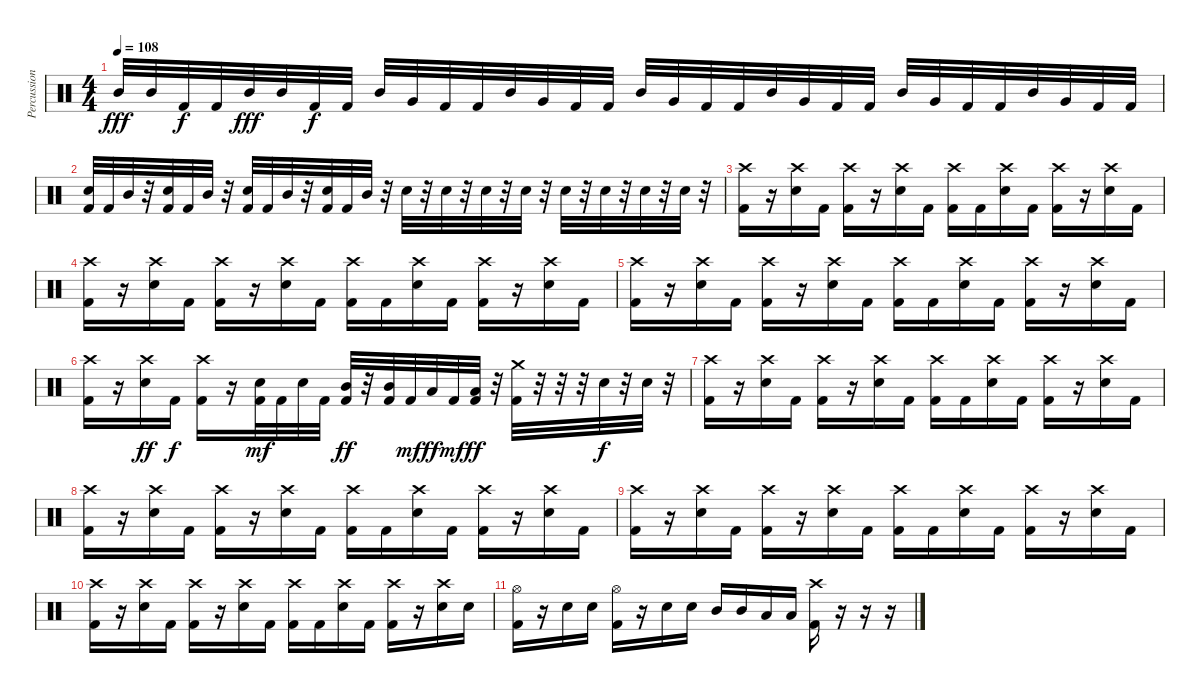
\track ("Percussions" "Percussion") {instrument percussion}
\staff {score}
\articulation defaults
\ts (4 4)
\tempo 108
\clef neutral
\ks c "Mid Tom (hit)".32{dy fff} "Mid Tom (hit)".32 "Kick (hit) 2".32{dy f} "Kick (hit) 2".32 "Mid Tom (hit)".32{dy fff} "Mid Tom (hit)".32 "Kick (hit) 2".32{dy f} "Kick (hit) 2".32 "Mid Tom (hit)".32 "Very Low Tom (hit)".32 "Kick (hit) 2".32 "Kick (hit) 2".32 "Mid Tom (hit)".32 "Very Low Tom (hit)".32 "Kick (hit) 2".32 "Kick (hit) 2".32 "Mid Tom (hit)".32 "Very Low Tom (hit)".32 "Kick (hit) 2".32 "Kick (hit) 2".32 "Mid Tom (hit)".32 "Very Low Tom (hit)".32 "Kick (hit) 2".32 "Kick (hit) 2".32 "Mid Tom (hit)".32 "Very Low Tom (hit)".32 "Kick (hit) 2".32 "Kick (hit) 2".32 "Mid Tom (hit)".32 "Very Low Tom (hit)".32 "Kick (hit) 2".32 "Kick (hit) 2".32
|
("Kick (hit) 2" "Electric Snare (hit)").32 "Kick (hit) 2".32 "Mid Tom (hit)".32 r.32 ("Kick (hit) 2" "Electric Snare (hit)").32 "Kick (hit) 2".32 "Mid Tom (hit)".32 r.32 ("Kick (hit) 2" "Electric Snare (hit)").32 "Kick (hit) 2".32 "Mid Tom (hit)".32 r.32 ("Kick (hit) 2" "Electric Snare (hit)").32 "Kick (hit) 2".32 "Mid Tom (hit)".32 r.32 "Electric Snare (hit)".32 r.32 "Electric Snare (hit)".32 r.32 "Electric Snare (hit)".32 r.32 "Electric Snare (hit)".32 r.32 "Electric Snare (hit)".32 r.32 "Electric Snare (hit)".32 r.32 "Electric Snare (hit)".32 r.32 "Electric Snare (hit)".32 r.32 |
("Kick (hit) 2" "Crash high (hit)").16 r.16 ("Electric Snare (hit)" "Crash high (hit)").16 "Kick (hit) 2".16 ("Kick (hit) 2" "Crash high (hit)").16 r.16 ("Electric Snare (hit)" "Crash high (hit)").16 "Kick (hit) 2".16 ("Kick (hit) 2" "Crash high (hit)").16 "Kick (hit) 2".16 ("Electric Snare (hit)" "Crash high (hit)").16 "Kick (hit) 2".16 ("Kick (hit) 2" "Crash high (hit)").16 r.16 ("Electric Snare (hit)" "Crash high (hit)").16 "Kick (hit) 2".16 |
("Kick (hit) 2" "Crash high (hit)").16 r.16 ("Electric Snare (hit)" "Crash high (hit)").16 "Kick (hit) 2".16 ("Kick (hit) 2" "Crash high (hit)").16 r.16 ("Electric Snare (hit)" "Crash high (hit)").16 "Kick (hit) 2".16 ("Kick (hit) 2" "Crash high (hit)").16 "Kick (hit) 2".16 ("Electric Snare (hit)" "Crash high (hit)").16 "Kick (hit) 2".16 ("Kick (hit) 2" "Crash high (hit)").16 r.16 ("Electric Snare (hit)" "Crash high (hit)").16 "Kick (hit) 2".16 |
("Kick (hit) 2" "Crash high (hit)").16 r.16 ("Electric Snare (hit)" "Crash high (hit)").16 "Kick (hit) 2".16 ("Kick (hit) 2" "Crash high (hit)").16 r.16 ("Electric Snare (hit)" "Crash high (hit)").16 "Kick (hit) 2".16 ("Kick (hit) 2" "Crash high (hit)").16 "Kick (hit) 2".16 ("Electric Snare (hit)" "Crash high (hit)").16 "Kick (hit) 2".16 ("Kick (hit) 2" "Crash high (hit)").16 r.16 ("Electric Snare (hit)" "Crash high (hit)").16 "Kick (hit) 2".16 |
("Kick (hit) 2" "Crash high (hit)").16 r.16 ("Electric Snare (hit)" "Crash high (hit)").16{dy ff} "Kick (hit) 2".16{dy f} ("Kick (hit) 2" "Crash high (hit)").16 r.16 ("Kick (hit) 2" "Electric Snare (hit)").32{dy mf} "Kick (hit) 2".32 "Electric Snare (hit)".32 "Kick (hit) 2".32 ("Kick (hit) 2" "Mid Tom (hit)").32{dy ff} r.32 ("Kick (hit) 2" "Mid Tom (hit)").32 "Kick (hit) 2".32{dy mf} "Low Tom (hit)".32{dy ff} "Kick (hit) 2".32{dy mf} ("Kick (hit) 2" "Low Tom (hit)").32{dy ff} r.32 ("Kick (hit) 2" "Crash medium (hit)").32 r.32 r.32 r.32 "Electric Snare (hit)".32{dy f} r.32 "Electric Snare (hit)".32 r.32 |
("Kick (hit) 2" "Crash high (hit)").16 r.16 ("Electric Snare (hit)" "Crash high (hit)").16 "Kick (hit) 2".16 ("Kick (hit) 2" "Crash high (hit)").16 r.16 ("Electric Snare (hit)" "Crash high (hit)").16 "Kick (hit) 2".16 ("Kick (hit) 2" "Crash high (hit)").16 "Kick (hit) 2".16 ("Electric Snare (hit)" "Crash high (hit)").16 "Kick (hit) 2".16 ("Kick (hit) 2" "Crash high (hit)").16 r.16 ("Electric Snare (hit)" "Crash high (hit)").16 "Kick (hit) 2".16 |
("Kick (hit) 2" "Crash high (hit)").16 r.16 ("Electric Snare (hit)" "Crash high (hit)").16 "Kick (hit) 2".16 ("Kick (hit) 2" "Crash high (hit)").16 r.16 ("Electric Snare (hit)" "Crash high (hit)").16 "Kick (hit) 2".16 ("Kick (hit) 2" "Crash high (hit)").16 "Kick (hit) 2".16 ("Electric Snare (hit)" "Crash high (hit)").16 "Kick (hit) 2".16 ("Kick (hit) 2" "Crash high (hit)").16 r.16 ("Electric Snare (hit)" "Crash high (hit)").16 "Kick (hit) 2".16 |
("Kick (hit) 2" "Crash high (hit)").16 r.16 ("Electric Snare (hit)" "Crash high (hit)").16 "Kick (hit) 2".16 ("Kick (hit) 2" "Crash high (hit)").16 r.16 ("Electric Snare (hit)" "Crash high (hit)").16 "Kick (hit) 2".16 ("Kick (hit) 2" "Crash high (hit)").16 "Kick (hit) 2".16 ("Electric Snare (hit)" "Crash high (hit)").16 "Kick (hit) 2".16 ("Kick (hit) 2" "Crash high (hit)").16 r.16 ("Electric Snare (hit)" "Crash high (hit)").16 "Kick (hit) 2".16 |
("Kick (hit) 2" "Crash high (hit)").16 r.16 ("Electric Snare (hit)" "Crash high (hit)").16 "Kick (hit) 2".16 ("Kick (hit) 2" "Crash high (hit)").16 r.16 ("Electric Snare (hit)" "Crash high (hit)").16 "Kick (hit) 2".16 ("Kick (hit) 2" "Crash high (hit)").16 "Kick (hit) 2".16 ("Electric Snare (hit)" "Crash high (hit)").16 "Kick (hit) 2".16 ("Kick (hit) 2" "Crash high (hit)").16 r.16 ("Electric Snare (hit)" "Crash high (hit)").16 "Electric Snare (hit)".16 |
("Kick (hit) 2" "Hi-Hat (open)").16 r.16 "Electric Snare (hit)".16 "Electric Snare (hit)".16 ("Kick (hit) 2" "Hi-Hat (open)").16 r.16 "Electric Snare (hit)".16 "Electric Snare (hit)".16 "Mid Tom (hit)".16 "Mid Tom (hit)".16 "Low Tom (hit)".16 "Low Tom (hit)".16 ("Kick (hit) 2" "Crash high (hit)").16 r.16 r.16 r.16
